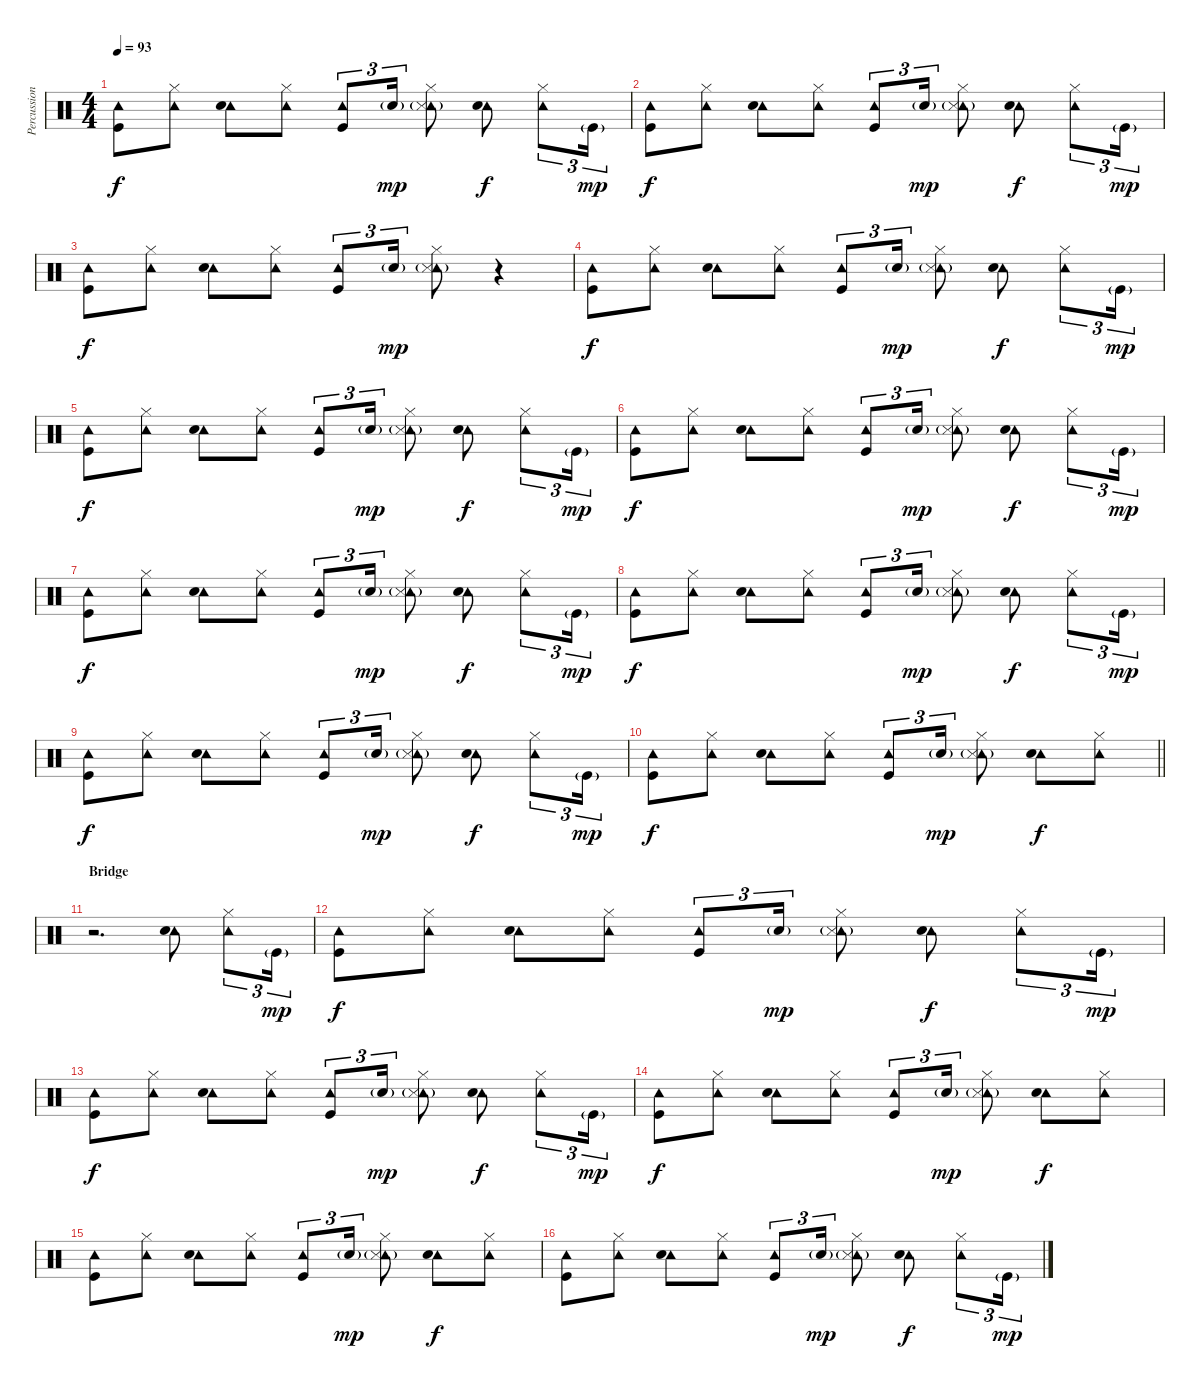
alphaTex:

\track ("Percussion" "Percussion") {instrument percussion}
\staff {score}
\articulation defaults
\ts (4 4)
\tempo 93
\clef neutral
\ks c
("Tambourine (hit)" "Kick (hit)").8{dy f} ("Tambourine (hit)" "Hi-Hat (closed)").8 ("Tambourine (hit)" "Electric Snare (hit)").8 ("Tambourine (hit)" "Hi-Hat (closed)").8 ("Tambourine (hit)" "Kick (hit)").8{tu (3 2)} "Electric Snare (hit)"{g}.16{tu (3 2) dy mp} ("Tambourine (hit)" "Hi-Hat (closed)" "Snare (side stick) 3"{g}).8 ("Tambourine (hit)" "Electric Snare (hit)").8{dy f} ("Tambourine (hit)" "Hi-Hat (closed)").8{tu (3 2)} "Kick (hit)"{g}.16{tu (3 2) dy mp} |
("Tambourine (hit)" "Kick (hit)").8{dy f} ("Tambourine (hit)" "Hi-Hat (closed)").8 ("Tambourine (hit)" "Electric Snare (hit)").8 ("Tambourine (hit)" "Hi-Hat (closed)").8 ("Tambourine (hit)" "Kick (hit)").8{tu (3 2)} "Electric Snare (hit)"{g}.16{tu (3 2) dy mp} ("Tambourine (hit)" "Hi-Hat (closed)" "Snare (side stick) 3"{g}).8 ("Tambourine (hit)" "Electric Snare (hit)").8{dy f} ("Tambourine (hit)" "Hi-Hat (closed)").8{tu (3 2)} "Kick (hit)"{g}.16{tu (3 2) dy mp} |
("Tambourine (hit)" "Kick (hit)").8{dy f} ("Tambourine (hit)" "Hi-Hat (closed)").8 ("Tambourine (hit)" "Electric Snare (hit)").8 ("Tambourine (hit)" "Hi-Hat (closed)").8 ("Tambourine (hit)" "Kick (hit)").8{tu (3 2)} "Electric Snare (hit)"{g}.16{tu (3 2) dy mp} ("Tambourine (hit)" "Hi-Hat (closed)" "Snare (side stick) 3"{g}).8 r.4 |
("Tambourine (hit)" "Kick (hit)").8{dy f} ("Tambourine (hit)" "Hi-Hat (closed)").8 ("Tambourine (hit)" "Electric Snare (hit)").8 ("Tambourine (hit)" "Hi-Hat (closed)").8 ("Tambourine (hit)" "Kick (hit)").8{tu (3 2)} "Electric Snare (hit)"{g}.16{tu (3 2) dy mp} ("Tambourine (hit)" "Hi-Hat (closed)" "Snare (side stick) 3"{g}).8 ("Tambourine (hit)" "Electric Snare (hit)").8{dy f} ("Tambourine (hit)" "Hi-Hat (closed)").8{tu (3 2)} "Kick (hit)"{g}.16{tu (3 2) dy mp} |
("Tambourine (hit)" "Kick (hit)").8{dy f} ("Tambourine (hit)" "Hi-Hat (closed)").8 ("Tambourine (hit)" "Electric Snare (hit)").8 ("Tambourine (hit)" "Hi-Hat (closed)").8 ("Tambourine (hit)" "Kick (hit)").8{tu (3 2)} "Electric Snare (hit)"{g}.16{tu (3 2) dy mp} ("Tambourine (hit)" "Hi-Hat (closed)" "Snare (side stick) 3"{g}).8 ("Tambourine (hit)" "Electric Snare (hit)").8{dy f} ("Tambourine (hit)" "Hi-Hat (closed)").8{tu (3 2)} "Kick (hit)"{g}.16{tu (3 2) dy mp} |
("Tambourine (hit)" "Kick (hit)").8{dy f} ("Tambourine (hit)" "Hi-Hat (closed)").8 ("Tambourine (hit)" "Electric Snare (hit)").8 ("Tambourine (hit)" "Hi-Hat (closed)").8 ("Tambourine (hit)" "Kick (hit)").8{tu (3 2)} "Electric Snare (hit)"{g}.16{tu (3 2) dy mp} ("Tambourine (hit)" "Hi-Hat (closed)" "Snare (side stick) 3"{g}).8 ("Tambourine (hit)" "Electric Snare (hit)").8{dy f} ("Tambourine (hit)" "Hi-Hat (closed)").8{tu (3 2)} "Kick (hit)"{g}.16{tu (3 2) dy mp} |
("Tambourine (hit)" "Kick (hit)").8{dy f} ("Tambourine (hit)" "Hi-Hat (closed)").8 ("Tambourine (hit)" "Electric Snare (hit)").8 ("Tambourine (hit)" "Hi-Hat (closed)").8 ("Tambourine (hit)" "Kick (hit)").8{tu (3 2)} "Electric Snare (hit)"{g}.16{tu (3 2) dy mp} ("Tambourine (hit)" "Hi-Hat (closed)" "Snare (side stick) 3"{g}).8 ("Tambourine (hit)" "Electric Snare (hit)").8{dy f} ("Tambourine (hit)" "Hi-Hat (closed)").8{tu (3 2)} "Kick (hit)"{g}.16{tu (3 2) dy mp} |
("Tambourine (hit)" "Kick (hit)").8{dy f} ("Tambourine (hit)" "Hi-Hat (closed)").8 ("Tambourine (hit)" "Electric Snare (hit)").8 ("Tambourine (hit)" "Hi-Hat (closed)").8 ("Tambourine (hit)" "Kick (hit)").8{tu (3 2)} "Electric Snare (hit)"{g}.16{tu (3 2) dy mp} ("Tambourine (hit)" "Hi-Hat (closed)" "Snare (side stick) 3"{g}).8 ("Tambourine (hit)" "Electric Snare (hit)").8{dy f} ("Tambourine (hit)" "Hi-Hat (closed)").8{tu (3 2)} "Kick (hit)"{g}.16{tu (3 2) dy mp} |
("Tambourine (hit)" "Kick (hit)").8{dy f} ("Tambourine (hit)" "Hi-Hat (closed)").8 ("Tambourine (hit)" "Electric Snare (hit)").8 ("Tambourine (hit)" "Hi-Hat (closed)").8 ("Tambourine (hit)" "Kick (hit)").8{tu (3 2)} "Electric Snare (hit)"{g}.16{tu (3 2) dy mp} ("Tambourine (hit)" "Hi-Hat (closed)" "Snare (side stick) 3"{g}).8 ("Tambourine (hit)" "Electric Snare (hit)").8{dy f} ("Tambourine (hit)" "Hi-Hat (closed)").8{tu (3 2)} "Kick (hit)"{g}.16{tu (3 2) dy mp} |
\barLineRight lightlight
("Tambourine (hit)" "Kick (hit)").8{dy f} ("Tambourine (hit)" "Hi-Hat (closed)").8 ("Tambourine (hit)" "Electric Snare (hit)").8 ("Tambourine (hit)" "Hi-Hat (closed)").8 ("Tambourine (hit)" "Kick (hit)").8{tu (3 2)} "Electric Snare (hit)"{g}.16{tu (3 2) dy mp} ("Tambourine (hit)" "Hi-Hat (closed)" "Snare (side stick) 3"{g}).8 ("Tambourine (hit)" "Electric Snare (hit)").8{dy f} ("Tambourine (hit)" "Hi-Hat (closed)").8 |
\section ("" "Bridge")
r.2{d} ("Tambourine (hit)" "Electric Snare (hit)").8 ("Tambourine (hit)" "Hi-Hat (closed)").8{tu (3 2)} "Kick (hit)"{g}.16{tu (3 2) dy mp} |
("Tambourine (hit)" "Kick (hit)").8{dy f} ("Tambourine (hit)" "Hi-Hat (closed)").8 ("Tambourine (hit)" "Electric Snare (hit)").8 ("Tambourine (hit)" "Hi-Hat (closed)").8 ("Tambourine (hit)" "Kick (hit)").8{tu (3 2)} "Electric Snare (hit)"{g}.16{tu (3 2) dy mp} ("Tambourine (hit)" "Hi-Hat (closed)" "Snare (side stick) 3"{g}).8 ("Tambourine (hit)" "Electric Snare (hit)").8{dy f} ("Tambourine (hit)" "Hi-Hat (closed)").8{tu (3 2)} "Kick (hit)"{g}.16{tu (3 2) dy mp} |
("Tambourine (hit)" "Kick (hit)").8{dy f} ("Tambourine (hit)" "Hi-Hat (closed)").8 ("Tambourine (hit)" "Electric Snare (hit)").8 ("Tambourine (hit)" "Hi-Hat (closed)").8 ("Tambourine (hit)" "Kick (hit)").8{tu (3 2)} "Electric Snare (hit)"{g}.16{tu (3 2) dy mp} ("Tambourine (hit)" "Hi-Hat (closed)" "Snare (side stick) 3"{g}).8 ("Tambourine (hit)" "Electric Snare (hit)").8{dy f} ("Tambourine (hit)" "Hi-Hat (closed)").8{tu (3 2)} "Kick (hit)"{g}.16{tu (3 2) dy mp} |
("Tambourine (hit)" "Kick (hit)").8{dy f} ("Tambourine (hit)" "Hi-Hat (closed)").8 ("Tambourine (hit)" "Electric Snare (hit)").8 ("Tambourine (hit)" "Hi-Hat (closed)").8 ("Tambourine (hit)" "Kick (hit)").8{tu (3 2)} "Electric Snare (hit)"{g}.16{tu (3 2) dy mp} ("Tambourine (hit)" "Hi-Hat (closed)" "Snare (side stick) 3"{g}).8 ("Tambourine (hit)" "Electric Snare (hit)").8{dy f} ("Tambourine (hit)" "Hi-Hat (closed)").8 |
("Tambourine (hit)" "Kick (hit)").8 ("Tambourine (hit)" "Hi-Hat (closed)").8 ("Tambourine (hit)" "Electric Snare (hit)").8 ("Tambourine (hit)" "Hi-Hat (closed)").8 ("Tambourine (hit)" "Kick (hit)").8{tu (3 2)} "Electric Snare (hit)"{g}.16{tu (3 2) dy mp} ("Tambourine (hit)" "Hi-Hat (closed)" "Snare (side stick) 3"{g}).8 ("Tambourine (hit)" "Electric Snare (hit)").8{dy f} ("Tambourine (hit)" "Hi-Hat (closed)").8 |
("Tambourine (hit)" "Kick (hit)").8 ("Tambourine (hit)" "Hi-Hat (closed)").8 ("Tambourine (hit)" "Electric Snare (hit)").8 ("Tambourine (hit)" "Hi-Hat (closed)").8 ("Tambourine (hit)" "Kick (hit)").8{tu (3 2)} "Electric Snare (hit)"{g}.16{tu (3 2) dy mp} ("Tambourine (hit)" "Hi-Hat (closed)" "Snare (side stick) 3"{g}).8 ("Tambourine (hit)" "Electric Snare (hit)").8{dy f} ("Tambourine (hit)" "Hi-Hat (closed)").8{tu (3 2)} "Kick (hit)"{g}.16{tu (3 2) dy mp}
